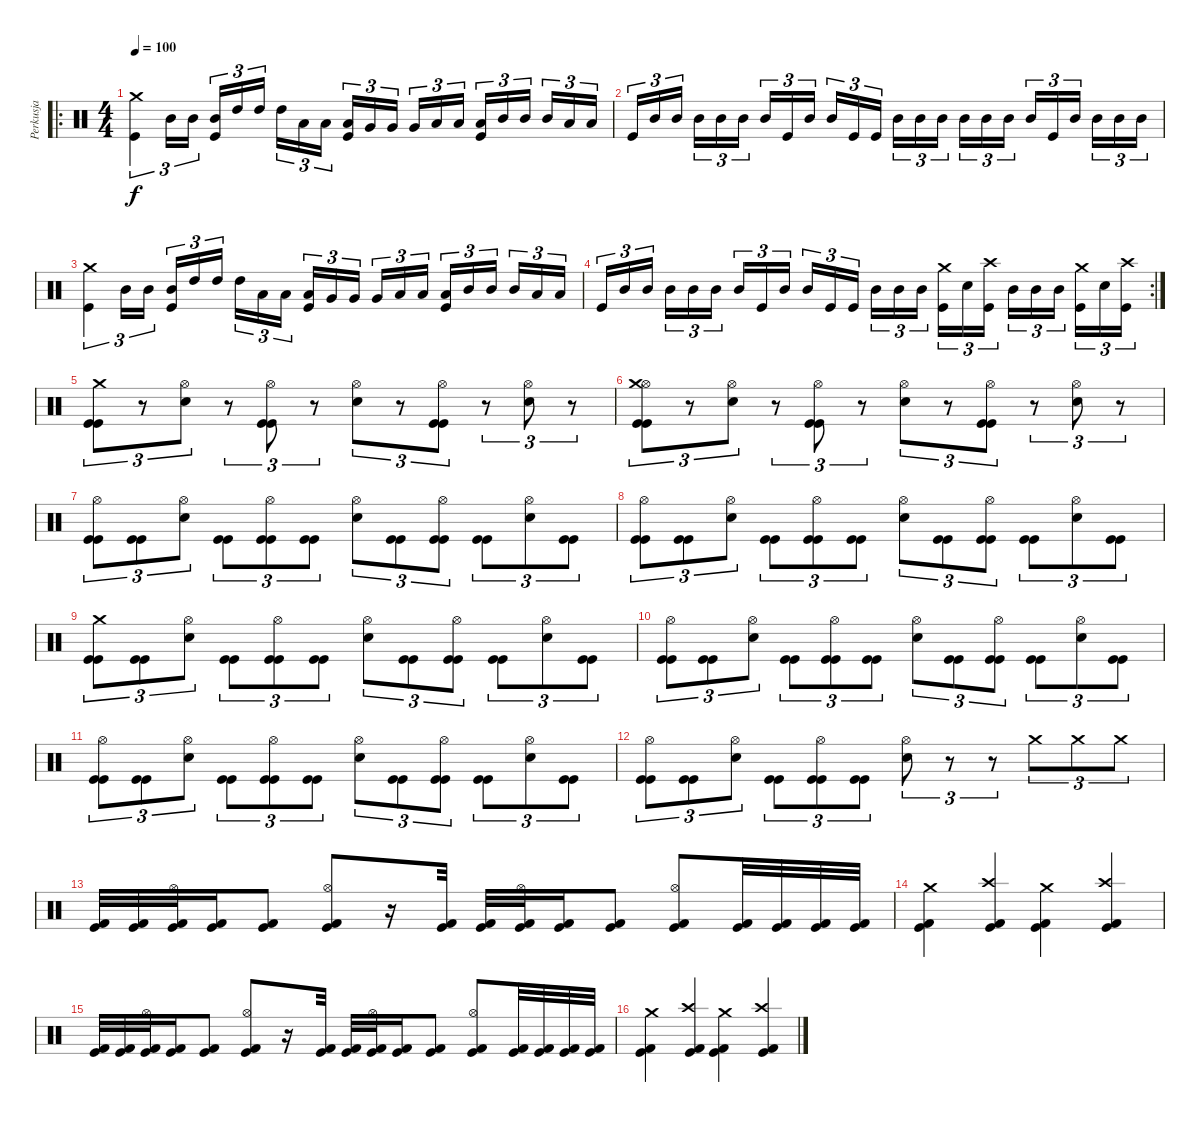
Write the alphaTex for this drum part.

\track ("Perkusja" "Perkusja") {instrument percussion}
\staff {score}
\articulation defaults
\ro
\ts (4 4)
\tempo 100
\clef neutral
\ks c
("Crash medium (hit)" "Kick (hit)").4{tu (3 2) dy f} "Mid Tom (hit)".16{tu (3 2)} "Mid Tom (hit)".16{tu (3 2)} ("Kick (hit)" "Mid Tom (hit)").16{tu (3 2)} "High Tom (hit)".16{tu (3 2)} "High Tom (hit)".16{tu (3 2)} "High Tom (hit)".16{tu (3 2)} "Low Tom (hit)".16{tu (3 2)} "Low Tom (hit)".16{tu (3 2)} ("Kick (hit)" "Low Tom (hit)").16{tu (3 2)} "Very Low Tom (hit)".16{tu (3 2)} "Very Low Tom (hit)".16{tu (3 2)} "Very Low Tom (hit)".16{tu (3 2)} "Low Floor Tom (hit)".16{tu (3 2)} "Low Floor Tom (hit)".16{tu (3 2)} ("Kick (hit)" "Low Floor Tom (hit)").16{tu (3 2)} "Mid Tom (hit)".16{tu (3 2)} "Mid Tom (hit)".16{tu (3 2)} "Mid Tom (hit)".16{tu (3 2)} "Low Tom (hit)".16{tu (3 2)} "Low Tom (hit)".16{tu (3 2)} |
"Kick (hit)".16{tu (3 2)} "Mid Tom (hit)".16{tu (3 2)} "Mid Tom (hit)".16{tu (3 2)} "Mid Tom (hit)".16{tu (3 2)} "Mid Tom (hit)".16{tu (3 2)} "Mid Tom (hit)".16{tu (3 2)} "Mid Tom (hit)".16{tu (3 2)} "Kick (hit)".16{tu (3 2)} "Mid Tom (hit)".16{tu (3 2)} "Mid Tom (hit)".16{tu (3 2)} "Kick (hit)".16{tu (3 2)} "Kick (hit)".16{tu (3 2)} "Mid Tom (hit)".16{tu (3 2)} "Mid Tom (hit)".16{tu (3 2)} "Mid Tom (hit)".16{tu (3 2)} "Mid Tom (hit)".16{tu (3 2)} "Mid Tom (hit)".16{tu (3 2)} "Mid Tom (hit)".16{tu (3 2)} "Mid Tom (hit)".16{tu (3 2)} "Kick (hit)".16{tu (3 2)} "Mid Tom (hit)".16{tu (3 2)} "Mid Tom (hit)".16{tu (3 2)} "Mid Tom (hit)".16{tu (3 2)} "Mid Tom (hit)".16{tu (3 2)} |
("Crash medium (hit)" "Kick (hit)").4{tu (3 2)} "Mid Tom (hit)".16{tu (3 2)} "Mid Tom (hit)".16{tu (3 2)} ("Kick (hit)" "Mid Tom (hit)").16{tu (3 2)} "High Tom (hit)".16{tu (3 2)} "High Tom (hit)".16{tu (3 2)} "High Tom (hit)".16{tu (3 2)} "Low Tom (hit)".16{tu (3 2)} "Low Tom (hit)".16{tu (3 2)} ("Kick (hit)" "Low Tom (hit)").16{tu (3 2)} "Very Low Tom (hit)".16{tu (3 2)} "Very Low Tom (hit)".16{tu (3 2)} "Very Low Tom (hit)".16{tu (3 2)} "Low Floor Tom (hit)".16{tu (3 2)} "Low Floor Tom (hit)".16{tu (3 2)} ("Kick (hit)" "Low Floor Tom (hit)").16{tu (3 2)} "Mid Tom (hit)".16{tu (3 2)} "Mid Tom (hit)".16{tu (3 2)} "Mid Tom (hit)".16{tu (3 2)} "Low Tom (hit)".16{tu (3 2)} "Low Tom (hit)".16{tu (3 2)} |
\rc 2 "Kick (hit)".16{tu (3 2)} "Mid Tom (hit)".16{tu (3 2)} "Mid Tom (hit)".16{tu (3 2)} "Mid Tom (hit)".16{tu (3 2)} "Mid Tom (hit)".16{tu (3 2)} "Mid Tom (hit)".16{tu (3 2)} "Mid Tom (hit)".16{tu (3 2)} "Kick (hit)".16{tu (3 2)} "Mid Tom (hit)".16{tu (3 2)} "Mid Tom (hit)".16{tu (3 2)} "Kick (hit)".16{tu (3 2)} "Kick (hit)".16{tu (3 2)} "Mid Tom (hit)".16{tu (3 2)} "Mid Tom (hit)".16{tu (3 2)} "Mid Tom (hit)".16{tu (3 2)}
("Crash medium (hit)" "Kick (hit)").16{tu (3 2)} "Snare (hit) 2".16{tu (3 2)} ("Crash high (hit)" "Kick (hit)").16{tu (3 2)} "Mid Tom (hit)".16{tu (3 2)} "Mid Tom (hit)".16{tu (3 2)} "Mid Tom (hit)".16{tu (3 2)} ("Crash medium (hit)" "Kick (hit)").16{tu (3 2)} "Snare (hit) 2".16{tu (3 2)} ("Crash high (hit)" "Kick (hit)").16{tu (3 2)} |
("Crash medium (hit)" "Kick (hit)" "Kick (hit)").8{tu (3 2)} r.8{tu (3 2)} ("Hi-Hat (open)" "Snare (hit) 2").8{tu (3 2)} r.8{tu (3 2)} ("Hi-Hat (open)" "Kick (hit)" "Kick (hit)").8{tu (3 2)} r.8{tu (3 2)} ("Hi-Hat (open)" "Snare (hit) 2").8{tu (3 2)} r.8{tu (3 2)} ("Hi-Hat (open)" "Kick (hit)" "Kick (hit)").8{tu (3 2)} r.8{tu (3 2)} ("Hi-Hat (open)" "Snare (hit) 2").8{tu (3 2)} r.8{tu (3 2)} |
("Hi-Hat (open)" "Crash medium (hit)" "Kick (hit)" "Kick (hit)").8{tu (3 2)} r.8{tu (3 2)} ("Hi-Hat (open)" "Snare (hit) 2").8{tu (3 2)} r.8{tu (3 2)} ("Hi-Hat (open)" "Kick (hit)" "Kick (hit)").8{tu (3 2)} r.8{tu (3 2)} ("Hi-Hat (open)" "Snare (hit) 2").8{tu (3 2)} r.8{tu (3 2)} ("Hi-Hat (open)" "Kick (hit)" "Kick (hit)").8{tu (3 2)} r.8{tu (3 2)} ("Hi-Hat (open)" "Snare (hit) 2").8{tu (3 2)} r.8{tu (3 2)} |
("Hi-Hat (open)" "Kick (hit)" "Kick (hit)").8{tu (3 2)} ("Kick (hit)" "Kick (hit)").8{tu (3 2)} ("Hi-Hat (open)" "Snare (hit) 2").8{tu (3 2)} ("Kick (hit)" "Kick (hit)").8{tu (3 2)} ("Hi-Hat (open)" "Kick (hit)" "Kick (hit)").8{tu (3 2)} ("Kick (hit)" "Kick (hit)").8{tu (3 2)} ("Hi-Hat (open)" "Snare (hit) 2").8{tu (3 2)} ("Kick (hit)" "Kick (hit)").8{tu (3 2)} ("Hi-Hat (open)" "Kick (hit)" "Kick (hit)").8{tu (3 2)} ("Kick (hit)" "Kick (hit)").8{tu (3 2)} ("Hi-Hat (open)" "Snare (hit) 2").8{tu (3 2)} ("Kick (hit)" "Kick (hit)").8{tu (3 2)} |
("Hi-Hat (open)" "Kick (hit)" "Kick (hit)").8{tu (3 2)} ("Kick (hit)" "Kick (hit)").8{tu (3 2)} ("Hi-Hat (open)" "Snare (hit) 2").8{tu (3 2)} ("Kick (hit)" "Kick (hit)").8{tu (3 2)} ("Hi-Hat (open)" "Kick (hit)" "Kick (hit)").8{tu (3 2)} ("Kick (hit)" "Kick (hit)").8{tu (3 2)} ("Hi-Hat (open)" "Snare (hit) 2").8{tu (3 2)} ("Kick (hit)" "Kick (hit)").8{tu (3 2)} ("Hi-Hat (open)" "Kick (hit)" "Kick (hit)").8{tu (3 2)} ("Kick (hit)" "Kick (hit)").8{tu (3 2)} ("Hi-Hat (open)" "Snare (hit) 2").8{tu (3 2)} ("Kick (hit)" "Kick (hit)").8{tu (3 2)} |
("Crash medium (hit)" "Kick (hit)" "Kick (hit)").8{tu (3 2)} ("Kick (hit)" "Kick (hit)").8{tu (3 2)} ("Hi-Hat (open)" "Snare (hit) 2").8{tu (3 2)} ("Kick (hit)" "Kick (hit)").8{tu (3 2)} ("Hi-Hat (open)" "Kick (hit)" "Kick (hit)").8{tu (3 2)} ("Kick (hit)" "Kick (hit)").8{tu (3 2)} ("Hi-Hat (open)" "Snare (hit) 2").8{tu (3 2)} ("Kick (hit)" "Kick (hit)").8{tu (3 2)} ("Hi-Hat (open)" "Kick (hit)" "Kick (hit)").8{tu (3 2)} ("Kick (hit)" "Kick (hit)").8{tu (3 2)} ("Hi-Hat (open)" "Snare (hit) 2").8{tu (3 2)} ("Kick (hit)" "Kick (hit)").8{tu (3 2)} |
("Hi-Hat (open)" "Kick (hit)" "Kick (hit)").8{tu (3 2)} ("Kick (hit)" "Kick (hit)").8{tu (3 2)} ("Hi-Hat (open)" "Snare (hit) 2").8{tu (3 2)} ("Kick (hit)" "Kick (hit)").8{tu (3 2)} ("Hi-Hat (open)" "Kick (hit)" "Kick (hit)").8{tu (3 2)} ("Kick (hit)" "Kick (hit)").8{tu (3 2)} ("Hi-Hat (open)" "Snare (hit) 2").8{tu (3 2)} ("Kick (hit)" "Kick (hit)").8{tu (3 2)} ("Hi-Hat (open)" "Kick (hit)" "Kick (hit)").8{tu (3 2)} ("Kick (hit)" "Kick (hit)").8{tu (3 2)} ("Hi-Hat (open)" "Snare (hit) 2").8{tu (3 2)} ("Kick (hit)" "Kick (hit)").8{tu (3 2)} |
("Hi-Hat (open)" "Kick (hit)" "Kick (hit)").8{tu (3 2)} ("Kick (hit)" "Kick (hit)").8{tu (3 2)} ("Hi-Hat (open)" "Snare (hit) 2").8{tu (3 2)} ("Kick (hit)" "Kick (hit)").8{tu (3 2)} ("Hi-Hat (open)" "Kick (hit)" "Kick (hit)").8{tu (3 2)} ("Kick (hit)" "Kick (hit)").8{tu (3 2)} ("Hi-Hat (open)" "Snare (hit) 2").8{tu (3 2)} ("Kick (hit)" "Kick (hit)").8{tu (3 2)} ("Hi-Hat (open)" "Kick (hit)" "Kick (hit)").8{tu (3 2)} ("Kick (hit)" "Kick (hit)").8{tu (3 2)} ("Hi-Hat (open)" "Snare (hit) 2").8{tu (3 2)} ("Kick (hit)" "Kick (hit)").8{tu (3 2)} |
("Hi-Hat (open)" "Kick (hit)" "Kick (hit)").8{tu (3 2)} ("Kick (hit)" "Kick (hit)").8{tu (3 2)} ("Hi-Hat (open)" "Snare (hit) 2").8{tu (3 2)} ("Kick (hit)" "Kick (hit)").8{tu (3 2)} ("Hi-Hat (open)" "Kick (hit)" "Kick (hit)").8{tu (3 2)} ("Kick (hit)" "Kick (hit)").8{tu (3 2)} ("Hi-Hat (open)" "Snare (hit) 2").8{tu (3 2)} r.8{tu (3 2)} r.8{tu (3 2)} "Crash medium (hit)".8{tu (3 2)} "Crash medium (hit)".8{tu (3 2)} "Crash medium (hit)".8{tu (3 2)} |
("Kick (hit) 2" "Kick (hit)").32 ("Kick (hit) 2" "Kick (hit)").32 ("Hi-Hat (open)" "Kick (hit) 2" "Kick (hit)").32 ("Kick (hit) 2" "Kick (hit)").16 ("Kick (hit) 2" "Kick (hit)").8 ("Hi-Hat (open)" "Kick (hit) 2" "Kick (hit)").8 r.16 ("Kick (hit) 2" "Kick (hit)").32 ("Kick (hit) 2" "Kick (hit)").32 ("Hi-Hat (open)" "Kick (hit) 2" "Kick (hit)").32 ("Kick (hit) 2" "Kick (hit)").16 ("Kick (hit) 2" "Kick (hit)").8 ("Hi-Hat (open)" "Kick (hit) 2" "Kick (hit)").8 ("Kick (hit) 2" "Kick (hit)").32 ("Kick (hit) 2" "Kick (hit)").32 ("Kick (hit) 2" "Kick (hit)").32 ("Kick (hit) 2" "Kick (hit)").32 |
("Kick (hit) 2" "Crash medium (hit)" "Kick (hit)").4 ("Kick (hit) 2" "Crash high (hit)" "Kick (hit)").4 ("Kick (hit) 2" "Crash medium (hit)" "Kick (hit)").4 ("Kick (hit) 2" "Crash high (hit)" "Kick (hit)").4 |
("Kick (hit) 2" "Kick (hit)").32 ("Kick (hit) 2" "Kick (hit)").32 ("Hi-Hat (open)" "Kick (hit) 2" "Kick (hit)").32 ("Kick (hit) 2" "Kick (hit)").16 ("Kick (hit) 2" "Kick (hit)").8 ("Hi-Hat (open)" "Kick (hit) 2" "Kick (hit)").8 r.16 ("Kick (hit) 2" "Kick (hit)").32 ("Kick (hit) 2" "Kick (hit)").32 ("Hi-Hat (open)" "Kick (hit) 2" "Kick (hit)").32 ("Kick (hit) 2" "Kick (hit)").16 ("Kick (hit) 2" "Kick (hit)").8 ("Hi-Hat (open)" "Kick (hit) 2" "Kick (hit)").8 ("Kick (hit) 2" "Kick (hit)").32 ("Kick (hit) 2" "Kick (hit)").32 ("Kick (hit) 2" "Kick (hit)").32 ("Kick (hit) 2" "Kick (hit)").32 |
("Kick (hit) 2" "Crash medium (hit)" "Kick (hit)").4 ("Kick (hit) 2" "Crash high (hit)" "Kick (hit)").4 ("Kick (hit) 2" "Crash medium (hit)" "Kick (hit)").4 ("Kick (hit) 2" "Crash high (hit)" "Kick (hit)").4
